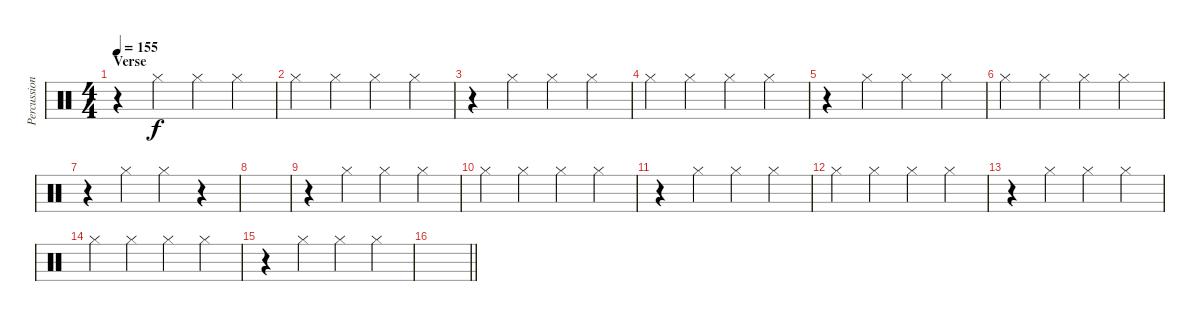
\track ("Percussion" "Percussion") {instrument percussion}
\staff {score}
\articulation defaults
\ts (4 4)
\section ("" "Verse")
\tempo 155
\clef neutral
\ks c
r.4{dy f} "Hi-Hat (closed)".4 "Hi-Hat (closed)".4 "Hi-Hat (closed)".4 |
"Hi-Hat (closed)".4 "Hi-Hat (closed)".4 "Hi-Hat (closed)".4 "Hi-Hat (closed)".4 |
r.4 "Hi-Hat (closed)".4 "Hi-Hat (closed)".4 "Hi-Hat (closed)".4 |
"Hi-Hat (closed)".4 "Hi-Hat (closed)".4 "Hi-Hat (closed)".4 "Hi-Hat (closed)".4 |
r.4 "Hi-Hat (closed)".4 "Hi-Hat (closed)".4 "Hi-Hat (closed)".4 |
"Hi-Hat (closed)".4 "Hi-Hat (closed)".4 "Hi-Hat (closed)".4 "Hi-Hat (closed)".4 |
r.4 "Hi-Hat (closed)".4 "Hi-Hat (closed)".4 r.4 |
|
r.4 "Hi-Hat (closed)".4 "Hi-Hat (closed)".4 "Hi-Hat (closed)".4 |
"Hi-Hat (closed)".4 "Hi-Hat (closed)".4 "Hi-Hat (closed)".4 "Hi-Hat (closed)".4 |
r.4 "Hi-Hat (closed)".4 "Hi-Hat (closed)".4 "Hi-Hat (closed)".4 |
"Hi-Hat (closed)".4 "Hi-Hat (closed)".4 "Hi-Hat (closed)".4 "Hi-Hat (closed)".4 |
r.4 "Hi-Hat (closed)".4 "Hi-Hat (closed)".4 "Hi-Hat (closed)".4 |
"Hi-Hat (closed)".4 "Hi-Hat (closed)".4 "Hi-Hat (closed)".4 "Hi-Hat (closed)".4 |
r.4 "Hi-Hat (closed)".4 "Hi-Hat (closed)".4 "Hi-Hat (closed)".4 |
\barLineRight lightlight
